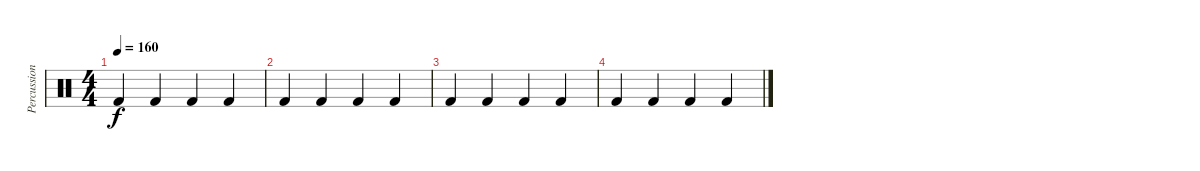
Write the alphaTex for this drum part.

\track ("Percussion" "Percussion") {instrument percussion}
\staff {score}
\articulation defaults
\ts (4 4)
\tempo 160
\clef neutral
\ks c "Kick (hit) 2".4{dy f} "Kick (hit) 2".4 "Kick (hit) 2".4 "Kick (hit) 2".4
|
"Kick (hit) 2".4 "Kick (hit) 2".4 "Kick (hit) 2".4 "Kick (hit) 2".4 |
"Kick (hit) 2".4 "Kick (hit) 2".4 "Kick (hit) 2".4 "Kick (hit) 2".4 |
"Kick (hit) 2".4 "Kick (hit) 2".4 "Kick (hit) 2".4 "Kick (hit) 2".4
